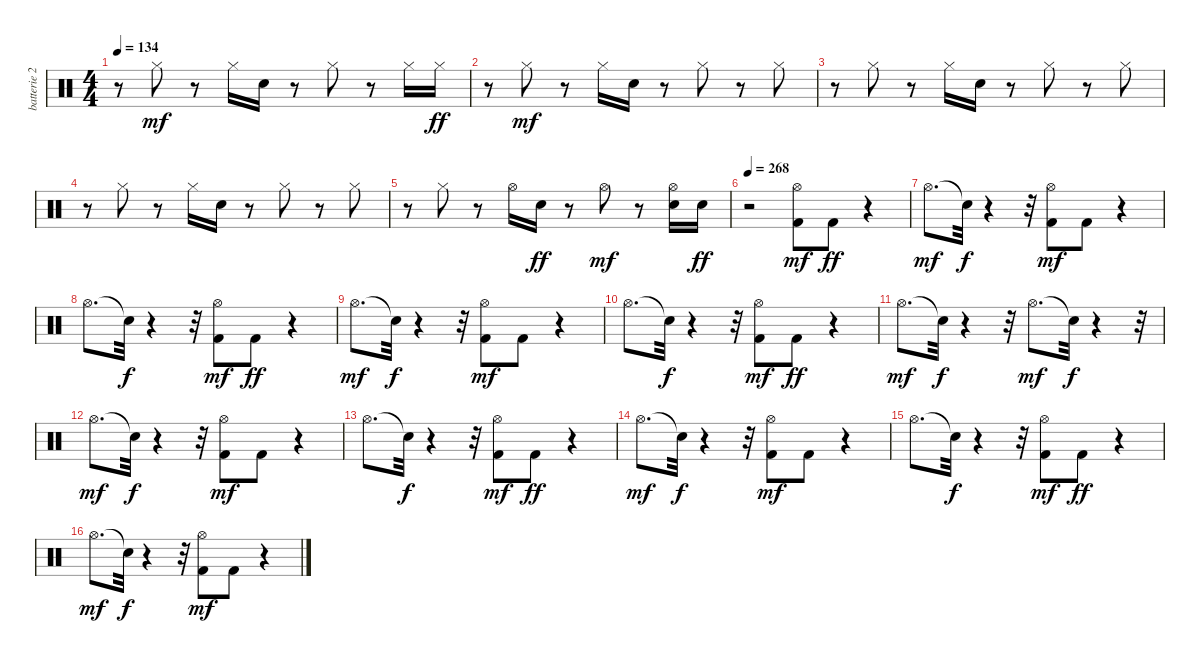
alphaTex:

\track ("batterie 2" "batterie 2") {instrument percussion}
\staff {score}
\articulation defaults
\ts (4 4)
\tempo 134
\clef neutral
\ks c
r.8{dy mf} "Hi-Hat (closed)".8 r.8 "Hi-Hat (closed)".16 "Electric Snare (hit)".16 r.8 "Hi-Hat (closed)".8 r.8 "Hi-Hat (closed)".16 "Hi-Hat (closed)".16{dy ff} |
r.8 "Hi-Hat (closed)".8{dy mf} r.8 "Hi-Hat (closed)".16 "Electric Snare (hit)".16 r.8 "Hi-Hat (closed)".8 r.8 "Hi-Hat (closed)".8 |
r.8 "Hi-Hat (closed)".8 r.8 "Hi-Hat (closed)".16 "Electric Snare (hit)".16 r.8 "Hi-Hat (closed)".8 r.8 "Hi-Hat (closed)".8 |
r.8 "Hi-Hat (closed)".8 r.8 "Hi-Hat (closed)".16 "Electric Snare (hit)".16 r.8 "Hi-Hat (closed)".8 r.8 "Hi-Hat (closed)".8 |
r.8 "Hi-Hat (closed)".8 r.8 "Hi-Hat (open)".16 "Electric Snare (hit)".16{dy ff} r.8 "Hi-Hat (open)".8{dy mf} r.8 ("Electric Snare (hit)" "Hi-Hat (open)").16 "Electric Snare (hit)".16{dy ff} |
\tempo 268
r.2 ("Kick (hit) 2" "Hi-Hat (open)").8{dy mf} "Kick (hit) 2".8{dy ff} r.4 |
"Hi-Hat (open)".8{d dy mf} "Snare (hit)"{t}.32{dy f} r.4 r.32 ("Kick (hit) 2" "Hi-Hat (open)").8{dy mf} "Kick (hit) 2".8 r.4 |
"Hi-Hat (open)".8{d} "Snare (hit)"{t}.32{dy f} r.4 r.32 ("Kick (hit) 2" "Hi-Hat (open)").8{dy mf} "Kick (hit) 2".8{dy ff} r.4 |
"Hi-Hat (open)".8{d dy mf} "Snare (hit)"{t}.32{dy f} r.4 r.32 ("Kick (hit) 2" "Hi-Hat (open)").8{dy mf} "Kick (hit) 2".8 r.4 |
"Hi-Hat (open)".8{d} "Snare (hit)"{t}.32{dy f} r.4 r.32 ("Kick (hit) 2" "Hi-Hat (open)").8{dy mf} "Kick (hit) 2".8{dy ff} r.4 |
"Hi-Hat (open)".8{d dy mf} "Snare (hit)"{t}.32{dy f} r.4 r.32 "Hi-Hat (open)".8{d dy mf} "Snare (hit)"{t}.32{dy f} r.4 r.32 |
"Hi-Hat (open)".8{d dy mf} "Snare (hit)"{t}.32{dy f} r.4 r.32 ("Kick (hit) 2" "Hi-Hat (open)").8{dy mf} "Kick (hit) 2".8 r.4 |
"Hi-Hat (open)".8{d} "Snare (hit)"{t}.32{dy f} r.4 r.32 ("Kick (hit) 2" "Hi-Hat (open)").8{dy mf} "Kick (hit) 2".8{dy ff} r.4 |
"Hi-Hat (open)".8{d dy mf} "Snare (hit)"{t}.32{dy f} r.4 r.32 ("Kick (hit) 2" "Hi-Hat (open)").8{dy mf} "Kick (hit) 2".8 r.4 |
"Hi-Hat (open)".8{d} "Snare (hit)"{t}.32{dy f} r.4 r.32 ("Kick (hit) 2" "Hi-Hat (open)").8{dy mf} "Kick (hit) 2".8{dy ff} r.4 |
"Hi-Hat (open)".8{d dy mf} "Snare (hit)"{t}.32{dy f} r.4 r.32 ("Kick (hit) 2" "Hi-Hat (open)").8{dy mf} "Kick (hit) 2".8 r.4
